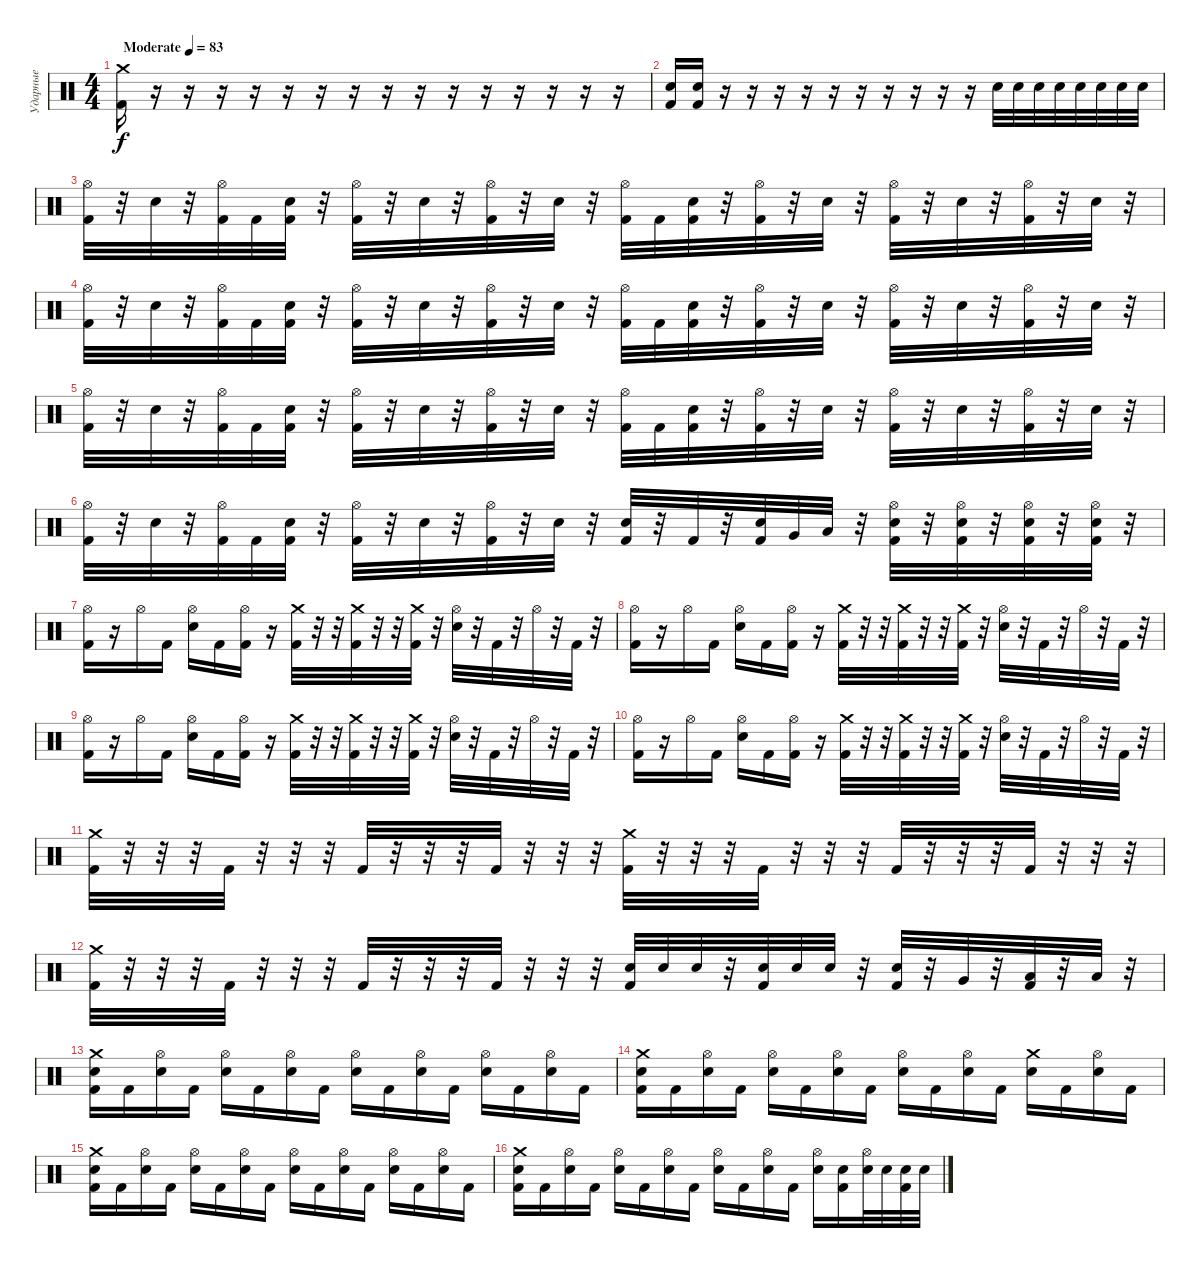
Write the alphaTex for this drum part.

\track ("Ударные" "Ударные") {instrument percussion}
\staff {score}
\articulation defaults
\ts (4 4)
\tempo (83 "Moderate")
\clef neutral
\ks c
("Crash medium (hit)" "Kick (hit) 2").16{dy f} r.16 r.16 r.16 r.16 r.16 r.16 r.16 r.16 r.16 r.16 r.16 r.16 r.16 r.16 r.16 |
("Electric Snare (hit)" "Kick (hit) 2").16 ("Electric Snare (hit)" "Kick (hit) 2").16 r.16 r.16 r.16 r.16 r.16 r.16 r.16 r.16 r.16 r.16 "Electric Snare (hit)".32 "Electric Snare (hit)".32 "Electric Snare (hit)".32 "Electric Snare (hit)".32 "Electric Snare (hit)".32 "Electric Snare (hit)".32 "Electric Snare (hit)".32 "Electric Snare (hit)".32 |
("Hi-Hat (open)" "Kick (hit) 2").32 r.32 "Electric Snare (hit)".32 r.32 ("Hi-Hat (open)" "Kick (hit) 2").32 "Kick (hit) 2".32 ("Electric Snare (hit)" "Kick (hit) 2").32 r.32 ("Hi-Hat (open)" "Kick (hit) 2").32 r.32 "Electric Snare (hit)".32 r.32 ("Hi-Hat (open)" "Kick (hit) 2").32 r.32 "Electric Snare (hit)".32 r.32 ("Hi-Hat (open)" "Kick (hit) 2").32 "Kick (hit) 2".32 ("Electric Snare (hit)" "Kick (hit) 2").32 r.32 ("Hi-Hat (open)" "Kick (hit) 2").32 r.32 "Electric Snare (hit)".32 r.32 ("Hi-Hat (open)" "Kick (hit) 2").32 r.32 "Electric Snare (hit)".32 r.32 ("Hi-Hat (open)" "Kick (hit) 2").32 r.32 "Electric Snare (hit)".32 r.32 |
("Hi-Hat (open)" "Kick (hit) 2").32 r.32 "Electric Snare (hit)".32 r.32 ("Hi-Hat (open)" "Kick (hit) 2").32 "Kick (hit) 2".32 ("Electric Snare (hit)" "Kick (hit) 2").32 r.32 ("Hi-Hat (open)" "Kick (hit) 2").32 r.32 "Electric Snare (hit)".32 r.32 ("Hi-Hat (open)" "Kick (hit) 2").32 r.32 "Electric Snare (hit)".32 r.32 ("Hi-Hat (open)" "Kick (hit) 2").32 "Kick (hit) 2".32 ("Electric Snare (hit)" "Kick (hit) 2").32 r.32 ("Hi-Hat (open)" "Kick (hit) 2").32 r.32 "Electric Snare (hit)".32 r.32 ("Hi-Hat (open)" "Kick (hit) 2").32 r.32 "Electric Snare (hit)".32 r.32 ("Hi-Hat (open)" "Kick (hit) 2").32 r.32 "Electric Snare (hit)".32 r.32 |
("Hi-Hat (open)" "Kick (hit) 2").32 r.32 "Electric Snare (hit)".32 r.32 ("Hi-Hat (open)" "Kick (hit) 2").32 "Kick (hit) 2".32 ("Electric Snare (hit)" "Kick (hit) 2").32 r.32 ("Hi-Hat (open)" "Kick (hit) 2").32 r.32 "Electric Snare (hit)".32 r.32 ("Hi-Hat (open)" "Kick (hit) 2").32 r.32 "Electric Snare (hit)".32 r.32 ("Hi-Hat (open)" "Kick (hit) 2").32 "Kick (hit) 2".32 ("Electric Snare (hit)" "Kick (hit) 2").32 r.32 ("Hi-Hat (open)" "Kick (hit) 2").32 r.32 "Electric Snare (hit)".32 r.32 ("Hi-Hat (open)" "Kick (hit) 2").32 r.32 "Electric Snare (hit)".32 r.32 ("Hi-Hat (open)" "Kick (hit) 2").32 r.32 "Electric Snare (hit)".32 r.32 |
("Hi-Hat (open)" "Kick (hit) 2").32 r.32 "Electric Snare (hit)".32 r.32 ("Hi-Hat (open)" "Kick (hit) 2").32 "Kick (hit) 2".32 ("Electric Snare (hit)" "Kick (hit) 2").32 r.32 ("Hi-Hat (open)" "Kick (hit) 2").32 r.32 "Electric Snare (hit)".32 r.32 ("Hi-Hat (open)" "Kick (hit) 2").32 r.32 "Electric Snare (hit)".32 r.32 ("Electric Snare (hit)" "Kick (hit) 2").32 r.32 "Kick (hit) 2".32 r.32 ("Electric Snare (hit)" "Kick (hit) 2").32 "Very Low Tom (hit)".32 "Low Tom (hit)".32 r.32 ("Hi-Hat (open)" "Electric Snare (hit)" "Kick (hit) 2").32 r.32 ("Hi-Hat (open)" "Electric Snare (hit)" "Kick (hit) 2").32 r.32 ("Hi-Hat (open)" "Electric Snare (hit)" "Kick (hit) 2").32 r.32 ("Hi-Hat (open)" "Electric Snare (hit)" "Kick (hit) 2").32 r.32 |
("Hi-Hat (open)" "Kick (hit) 2").16 r.16 "Hi-Hat (open)".16 "Kick (hit) 2".16 ("Hi-Hat (open)" "Electric Snare (hit)").16 "Kick (hit) 2".16 ("Hi-Hat (open)" "Kick (hit) 2").16 r.16 ("Crash medium (hit)" "Kick (hit) 2").32 r.32 r.32 ("Crash medium (hit)" "Kick (hit) 2").32 r.32 r.32 ("Crash medium (hit)" "Kick (hit) 2").32 r.32 ("Hi-Hat (open)" "Electric Snare (hit)").32 r.32 "Kick (hit) 2".32 r.32 "Hi-Hat (open)".32 r.32 "Kick (hit) 2".32 r.32 |
("Hi-Hat (open)" "Kick (hit) 2").16 r.16 "Hi-Hat (open)".16 "Kick (hit) 2".16 ("Hi-Hat (open)" "Electric Snare (hit)").16 "Kick (hit) 2".16 ("Hi-Hat (open)" "Kick (hit) 2").16 r.16 ("Crash medium (hit)" "Kick (hit) 2").32 r.32 r.32 ("Crash medium (hit)" "Kick (hit) 2").32 r.32 r.32 ("Crash medium (hit)" "Kick (hit) 2").32 r.32 ("Hi-Hat (open)" "Electric Snare (hit)").32 r.32 "Kick (hit) 2".32 r.32 "Hi-Hat (open)".32 r.32 "Kick (hit) 2".32 r.32 |
("Hi-Hat (open)" "Kick (hit) 2").16 r.16 "Hi-Hat (open)".16 "Kick (hit) 2".16 ("Hi-Hat (open)" "Electric Snare (hit)").16 "Kick (hit) 2".16 ("Hi-Hat (open)" "Kick (hit) 2").16 r.16 ("Crash medium (hit)" "Kick (hit) 2").32 r.32 r.32 ("Crash medium (hit)" "Kick (hit) 2").32 r.32 r.32 ("Crash medium (hit)" "Kick (hit) 2").32 r.32 ("Hi-Hat (open)" "Electric Snare (hit)").32 r.32 "Kick (hit) 2".32 r.32 "Hi-Hat (open)".32 r.32 "Kick (hit) 2".32 r.32 |
("Hi-Hat (open)" "Kick (hit) 2").16 r.16 "Hi-Hat (open)".16 "Kick (hit) 2".16 ("Hi-Hat (open)" "Electric Snare (hit)").16 "Kick (hit) 2".16 ("Hi-Hat (open)" "Kick (hit) 2").16 r.16 ("Crash medium (hit)" "Kick (hit) 2").32 r.32 r.32 ("Crash medium (hit)" "Kick (hit) 2").32 r.32 r.32 ("Crash medium (hit)" "Kick (hit) 2").32 r.32 ("Hi-Hat (open)" "Electric Snare (hit)").32 r.32 "Kick (hit) 2".32 r.32 "Hi-Hat (open)".32 r.32 "Kick (hit) 2".32 r.32 |
("Crash medium (hit)" "Kick (hit) 2").32 r.32 r.32 r.32 "Kick (hit) 2".32 r.32 r.32 r.32 "Kick (hit) 2".32 r.32 r.32 r.32 "Kick (hit) 2".32 r.32 r.32 r.32 ("Crash medium (hit)" "Kick (hit) 2").32 r.32 r.32 r.32 "Kick (hit) 2".32 r.32 r.32 r.32 "Kick (hit) 2".32 r.32 r.32 r.32 "Kick (hit) 2".32 r.32 r.32 r.32 |
("Crash medium (hit)" "Kick (hit) 2").32 r.32 r.32 r.32 "Kick (hit) 2".32 r.32 r.32 r.32 "Kick (hit) 2".32 r.32 r.32 r.32 "Kick (hit) 2".32 r.32 r.32 r.32 ("Electric Snare (hit)" "Kick (hit) 2").32 "Electric Snare (hit)".32 "Electric Snare (hit)".32 r.32 ("Electric Snare (hit)" "Kick (hit) 2").32 "Electric Snare (hit)".32 "Electric Snare (hit)".32 r.32 ("Electric Snare (hit)" "Kick (hit) 2").32 r.32 "Very Low Tom (hit)".32 r.32 ("Low Tom (hit)" "Kick (hit) 2").32 r.32 "Low Floor Tom (hit)".32 r.32 |
("Crash medium (hit)" "Electric Snare (hit)" "Kick (hit) 2").16 "Kick (hit) 2".16 ("Hi-Hat (open)" "Electric Snare (hit)").16 "Kick (hit) 2".16 ("Hi-Hat (open)" "Electric Snare (hit)").16 "Kick (hit) 2".16 ("Hi-Hat (open)" "Electric Snare (hit)").16 "Kick (hit) 2".16 ("Hi-Hat (open)" "Electric Snare (hit)").16 "Kick (hit) 2".16 ("Hi-Hat (open)" "Electric Snare (hit)").16 "Kick (hit) 2".16 ("Hi-Hat (open)" "Electric Snare (hit)").16 "Kick (hit) 2".16 ("Hi-Hat (open)" "Electric Snare (hit)").16 "Kick (hit) 2".16 |
("Crash medium (hit)" "Electric Snare (hit)" "Kick (hit) 2").16 "Kick (hit) 2".16 ("Hi-Hat (open)" "Electric Snare (hit)").16 "Kick (hit) 2".16 ("Hi-Hat (open)" "Electric Snare (hit)").16 "Kick (hit) 2".16 ("Hi-Hat (open)" "Electric Snare (hit)").16 "Kick (hit) 2".16 ("Hi-Hat (open)" "Electric Snare (hit)").16 "Kick (hit) 2".16 ("Hi-Hat (open)" "Electric Snare (hit)").16 "Kick (hit) 2".16 ("Crash medium (hit)" "Electric Snare (hit)").16 "Kick (hit) 2".16 ("Hi-Hat (open)" "Electric Snare (hit)").16 "Kick (hit) 2".16 |
("Crash medium (hit)" "Electric Snare (hit)" "Kick (hit) 2").16 "Kick (hit) 2".16 ("Hi-Hat (open)" "Electric Snare (hit)").16 "Kick (hit) 2".16 ("Hi-Hat (open)" "Electric Snare (hit)").16 "Kick (hit) 2".16 ("Hi-Hat (open)" "Electric Snare (hit)").16 "Kick (hit) 2".16 ("Hi-Hat (open)" "Electric Snare (hit)").16 "Kick (hit) 2".16 ("Hi-Hat (open)" "Electric Snare (hit)").16 "Kick (hit) 2".16 ("Hi-Hat (open)" "Electric Snare (hit)").16 "Kick (hit) 2".16 ("Hi-Hat (open)" "Electric Snare (hit)").16 "Kick (hit) 2".16 |
("Crash medium (hit)" "Electric Snare (hit)" "Kick (hit) 2").16 "Kick (hit) 2".16 ("Hi-Hat (open)" "Electric Snare (hit)").16 "Kick (hit) 2".16 ("Hi-Hat (open)" "Electric Snare (hit)").16 "Kick (hit) 2".16 ("Hi-Hat (open)" "Electric Snare (hit)").16 "Kick (hit) 2".16 ("Hi-Hat (open)" "Electric Snare (hit)").16 "Kick (hit) 2".16 ("Hi-Hat (open)" "Electric Snare (hit)").16 "Kick (hit) 2".16 ("Hi-Hat (open)" "Electric Snare (hit)").16 ("Electric Snare (hit)" "Kick (hit) 2").16 ("Hi-Hat (open)" "Electric Snare (hit)").32 "Electric Snare (hit)".32 ("Electric Snare (hit)" "Kick (hit) 2").32 "Electric Snare (hit)".32
